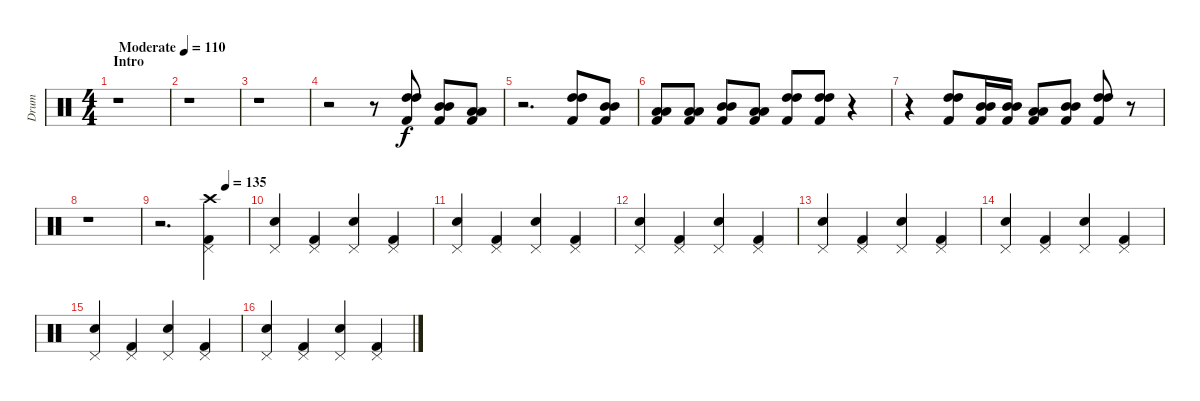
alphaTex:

\track ("Drum" "Drum") {instrument percussion}
\staff {score}
\articulation defaults
\ts (4 4)
\section ("" "Intro")
\tempo (110 "Moderate")
\clef neutral
\ks c
r.1{dy f} |
r.1 |
r.1 |
r.2 r.8 ("High Tom (hit)" "High Tom (hit)" "Kick (hit) 2").8 ("Mid Tom (hit)" "Mid Tom (hit)" "Kick (hit) 2").8 ("Low Floor Tom (hit)" "Low Floor Tom (hit)" "Kick (hit) 2").8 |
r.2{d} ("High Tom (hit)" "High Tom (hit)" "Kick (hit) 2").8 ("Mid Tom (hit)" "Mid Tom (hit)" "Kick (hit) 2").8 |
("Low Tom (hit)" "Low Tom (hit)" "Kick (hit) 2").8 ("Low Floor Tom (hit)" "Low Floor Tom (hit)" "Kick (hit) 2").8 ("Mid Tom (hit)" "Mid Tom (hit)" "Kick (hit) 2").8 ("Low Tom (hit)" "Low Tom (hit)" "Kick (hit) 2").8 ("High Tom (hit)" "High Tom (hit)" "Kick (hit) 2").8 ("High Tom (hit)" "High Tom (hit)" "Kick (hit) 2").8 r.4 |
r.4 ("High Tom (hit)" "High Tom (hit)" "Kick (hit) 2").8 ("Mid Tom (hit)" "Mid Tom (hit)" "Kick (hit) 2").16 ("Mid Tom (hit)" "Mid Tom (hit)" "Kick (hit) 2").16 ("Low Tom (hit)" "Low Tom (hit)" "Kick (hit) 2").8 ("Mid Tom (hit)" "Mid Tom (hit)" "Kick (hit) 2").8 ("High Tom (hit)" "High Tom (hit)" "Kick (hit) 2").8 r.8 |
r.1 |
\tempo (135 0.75)
r.2{d} ("Kick (hit) 2" "Pedal Hi-Hat (hit)" "Crash high (hit)").4 |
("Electric Snare (hit)" "Pedal Hi-Hat (hit)").4 ("Kick (hit) 2" "Pedal Hi-Hat (hit)").4 ("Electric Snare (hit)" "Pedal Hi-Hat (hit)").4 ("Kick (hit) 2" "Pedal Hi-Hat (hit)").4 |
("Electric Snare (hit)" "Pedal Hi-Hat (hit)").4 ("Kick (hit) 2" "Pedal Hi-Hat (hit)").4 ("Electric Snare (hit)" "Pedal Hi-Hat (hit)").4 ("Kick (hit) 2" "Pedal Hi-Hat (hit)").4 |
("Electric Snare (hit)" "Pedal Hi-Hat (hit)").4 ("Kick (hit) 2" "Pedal Hi-Hat (hit)").4 ("Electric Snare (hit)" "Pedal Hi-Hat (hit)").4 ("Kick (hit) 2" "Pedal Hi-Hat (hit)").4 |
("Electric Snare (hit)" "Pedal Hi-Hat (hit)").4 ("Kick (hit) 2" "Pedal Hi-Hat (hit)").4 ("Electric Snare (hit)" "Pedal Hi-Hat (hit)").4 ("Kick (hit) 2" "Pedal Hi-Hat (hit)").4 |
("Electric Snare (hit)" "Pedal Hi-Hat (hit)").4 ("Kick (hit) 2" "Pedal Hi-Hat (hit)").4 ("Electric Snare (hit)" "Pedal Hi-Hat (hit)").4 ("Kick (hit) 2" "Pedal Hi-Hat (hit)").4 |
("Electric Snare (hit)" "Pedal Hi-Hat (hit)").4 ("Kick (hit) 2" "Pedal Hi-Hat (hit)").4 ("Electric Snare (hit)" "Pedal Hi-Hat (hit)").4 ("Kick (hit) 2" "Pedal Hi-Hat (hit)").4 |
("Electric Snare (hit)" "Pedal Hi-Hat (hit)").4 ("Kick (hit) 2" "Pedal Hi-Hat (hit)").4 ("Electric Snare (hit)" "Pedal Hi-Hat (hit)").4 ("Kick (hit) 2" "Pedal Hi-Hat (hit)").4
